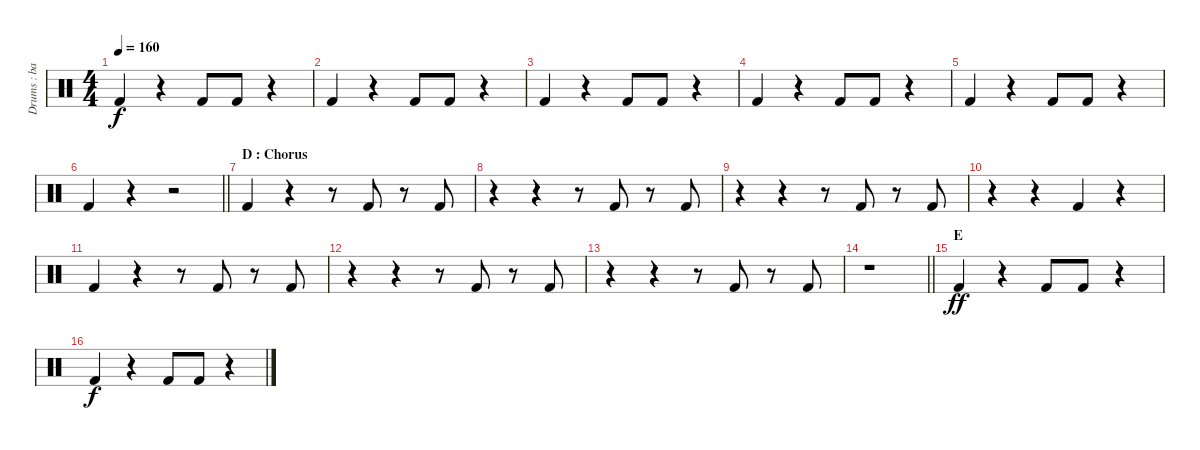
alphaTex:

\track ("Drums : bass drums" "Drums : ba") {instrument percussion}
\staff {score}
\articulation defaults
\ts (4 4)
\tempo 160
\clef neutral
\ks c "Kick (hit) 2".4{dy f}
r.4 "Kick (hit) 2".8 "Kick (hit) 2".8 r.4 |
"Kick (hit) 2".4 r.4 "Kick (hit) 2".8 "Kick (hit) 2".8 r.4 |
"Kick (hit) 2".4 r.4 "Kick (hit) 2".8 "Kick (hit) 2".8 r.4 |
"Kick (hit) 2".4 r.4 "Kick (hit) 2".8 "Kick (hit) 2".8 r.4 |
"Kick (hit) 2".4 r.4 "Kick (hit) 2".8 "Kick (hit) 2".8 r.4 |
\barLineRight lightlight "Kick (hit) 2".4
r.4 r.2 |
\section ("" "D : Chorus")
"Kick (hit) 2".4 r.4 r.8 "Kick (hit) 2".8 r.8 "Kick (hit) 2".8 |
r.4 r.4 r.8 "Kick (hit) 2".8 r.8 "Kick (hit) 2".8 |
r.4 r.4 r.8 "Kick (hit) 2".8 r.8 "Kick (hit) 2".8 |
r.4 r.4 "Kick (hit) 2".4 r.4 |
"Kick (hit) 2".4 r.4 r.8 "Kick (hit) 2".8 r.8 "Kick (hit) 2".8 |
r.4 r.4 r.8 "Kick (hit) 2".8 r.8 "Kick (hit) 2".8 |
r.4 r.4 r.8 "Kick (hit) 2".8 r.8 "Kick (hit) 2".8 |
\barLineRight lightlight
r.1 |
\section ("" "E")
"Kick (hit) 2".4{dy ff volume 13} r.4 "Kick (hit) 2".8 "Kick (hit) 2".8 r.4 |
"Kick (hit) 2".4{dy f} r.4 "Kick (hit) 2".8 "Kick (hit) 2".8 r.4
